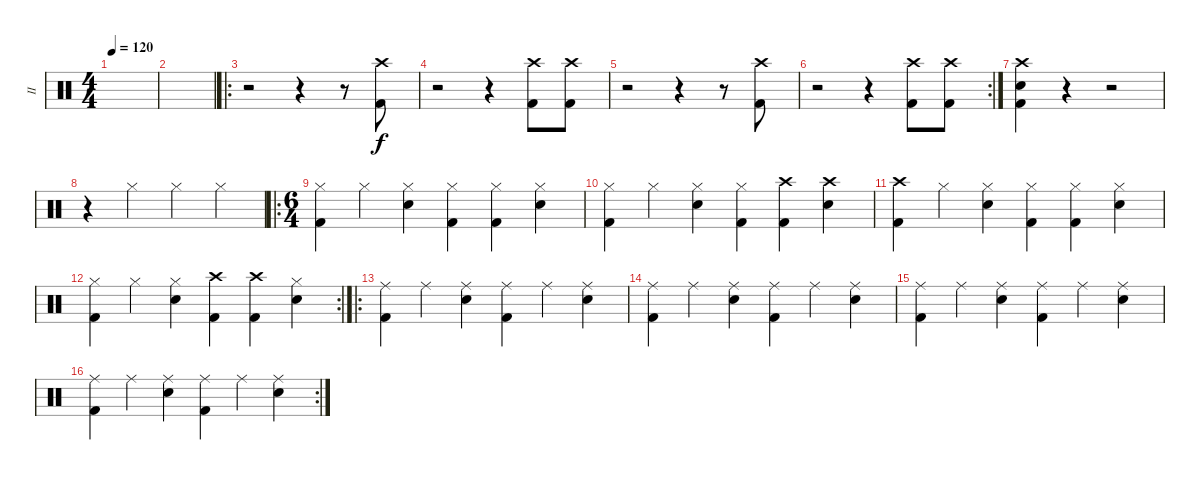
\track ("II" "II") {instrument percussion}
\staff {score}
\articulation defaults
\ts (4 4)
\tempo 120
\clef neutral
\ks c
|
|
\ro
r.2 r.4 r.8 ("Crash high (hit)" "Kick (hit) 2").8 |
r.2 r.4 ("Crash high (hit)" "Kick (hit) 2").8 ("Crash high (hit)" "Kick (hit) 2").8 |
r.2 r.4 r.8 ("Crash high (hit)" "Kick (hit) 2").8 |
\rc 2
r.2 r.4 ("Crash high (hit)" "Kick (hit) 2").8 ("Crash high (hit)" "Kick (hit) 2").8 |
("Crash high (hit)" "Snare (hit) 2" "Kick (hit) 2").4 r.4 r.2 |
r.4 "Hi-Hat (closed)".4 "Hi-Hat (closed)".4 "Hi-Hat (closed)".4 |
\ro
\ts (6 4)
("Kick (hit) 2" "Hi-Hat (closed)").4 "Hi-Hat (closed)".4 ("Hi-Hat (closed)" "Snare (hit) 2").4 ("Kick (hit) 2" "Hi-Hat (closed)").4 ("Kick (hit) 2" "Hi-Hat (closed)").4 ("Hi-Hat (closed)" "Snare (hit) 2").4 |
("Kick (hit) 2" "Hi-Hat (closed)").4 "Hi-Hat (closed)".4 ("Hi-Hat (closed)" "Snare (hit) 2").4 ("Kick (hit) 2" "Hi-Hat (closed)").4 ("Kick (hit) 2" "Crash high (hit)").4 ("Crash high (hit)" "Snare (hit) 2").4 |
("Kick (hit) 2" "Crash high (hit)").4 "Hi-Hat (closed)".4 ("Hi-Hat (closed)" "Snare (hit) 2").4 ("Kick (hit) 2" "Hi-Hat (closed)").4 ("Kick (hit) 2" "Hi-Hat (closed)").4 ("Hi-Hat (closed)" "Snare (hit) 2").4 |
\rc 2
("Kick (hit) 2" "Hi-Hat (closed)").4 "Hi-Hat (closed)".4 ("Hi-Hat (closed)" "Snare (hit) 2").4 ("Kick (hit) 2" "Crash high (hit)").4 ("Kick (hit) 2" "Crash high (hit)").4 ("Hi-Hat (closed)" "Snare (hit) 2").4 |
\ro
("Kick (hit) 2" "Ride (middle)").4 "Ride (middle)".4 ("Ride (middle)" "Snare (hit) 2").4 ("Kick (hit) 2" "Ride (middle)").4 "Ride (middle)".4 ("Ride (middle)" "Snare (hit) 2").4 |
("Kick (hit) 2" "Ride (middle)").4 "Ride (middle)".4 ("Ride (middle)" "Snare (hit) 2").4 ("Kick (hit) 2" "Ride (middle)").4 "Ride (middle)".4 ("Ride (middle)" "Snare (hit) 2").4 |
("Kick (hit) 2" "Ride (middle)").4 "Ride (middle)".4 ("Ride (middle)" "Snare (hit) 2").4 ("Kick (hit) 2" "Ride (middle)").4 "Ride (middle)".4 ("Ride (middle)" "Snare (hit) 2").4 |
\rc 2
("Kick (hit) 2" "Ride (middle)").4 "Ride (middle)".4 ("Ride (middle)" "Snare (hit) 2").4 ("Kick (hit) 2" "Ride (middle)").4 "Ride (middle)".4 ("Ride (middle)" "Snare (hit) 2").4
